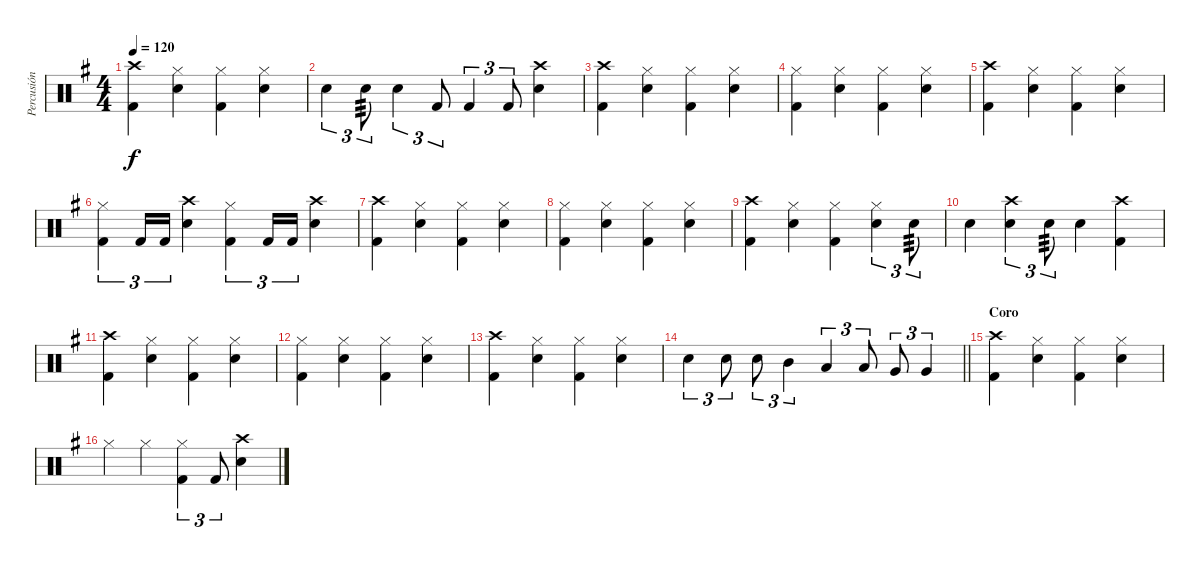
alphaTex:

\track ("Percusión" "Percusión") {instrument percussion}
\staff {score}
\articulation defaults
\ts (4 4)
\tempo 120
\clef neutral
\ks g
("Crash high (hit)" "Kick (hit) 2").4{dy f} ("Hi-Hat (closed)" "Snare (hit) 2").4 ("Hi-Hat (closed)" "Kick (hit) 2").4 ("Hi-Hat (closed)" "Snare (hit) 2").4 |
"Snare (hit) 2".4{tu (3 2)} "Snare (hit) 2".8{tu (3 2) tp 3} "Snare (hit) 2".4{tu (3 2)} "Kick (hit) 2".8{tu (3 2)} "Kick (hit) 2".4{tu (3 2)} "Kick (hit) 2".8{tu (3 2)} ("Crash high (hit)" "Snare (hit) 2").4 |
("Crash high (hit)" "Kick (hit) 2").4 ("Hi-Hat (closed)" "Snare (hit) 2").4 ("Hi-Hat (closed)" "Kick (hit) 2").4 ("Hi-Hat (closed)" "Snare (hit) 2").4 |
("Hi-Hat (closed)" "Kick (hit) 2").4 ("Hi-Hat (closed)" "Snare (hit) 2").4 ("Hi-Hat (closed)" "Kick (hit) 2").4 ("Hi-Hat (closed)" "Snare (hit) 2").4 |
("Crash high (hit)" "Kick (hit) 2").4 ("Hi-Hat (closed)" "Snare (hit) 2").4 ("Hi-Hat (closed)" "Kick (hit) 2").4 ("Hi-Hat (closed)" "Snare (hit) 2").4 |
("Hi-Hat (closed)" "Kick (hit) 2").4{tu (3 2)} "Kick (hit) 2".16{tu (3 2)} "Kick (hit) 2".16{tu (3 2)} ("Crash high (hit)" "Snare (hit) 2").4 ("Hi-Hat (closed)" "Kick (hit) 2").4{tu (3 2)} "Kick (hit) 2".16{tu (3 2)} "Kick (hit) 2".16{tu (3 2)} ("Crash high (hit)" "Snare (hit) 2").4 |
("Crash high (hit)" "Kick (hit) 2").4 ("Hi-Hat (closed)" "Snare (hit) 2").4 ("Hi-Hat (closed)" "Kick (hit) 2").4 ("Hi-Hat (closed)" "Snare (hit) 2").4 |
("Hi-Hat (closed)" "Kick (hit) 2").4 ("Hi-Hat (closed)" "Snare (hit) 2").4 ("Hi-Hat (closed)" "Kick (hit) 2").4 ("Hi-Hat (closed)" "Snare (hit) 2").4 |
("Crash high (hit)" "Kick (hit) 2").4 ("Hi-Hat (closed)" "Snare (hit) 2").4 ("Hi-Hat (closed)" "Kick (hit) 2").4 ("Hi-Hat (closed)" "Snare (hit) 2").4{tu (3 2)} "Snare (hit) 2".8{tu (3 2) tp 3} |
"Snare (hit) 2".4 ("Crash high (hit)" "Snare (hit) 2").4{tu (3 2)} "Snare (hit) 2".8{tu (3 2) tp 3} "Snare (hit) 2".4 ("Crash high (hit)" "Kick (hit) 2").4 |
("Crash high (hit)" "Kick (hit) 2").4 ("Hi-Hat (closed)" "Snare (hit) 2").4 ("Hi-Hat (closed)" "Kick (hit) 2").4 ("Hi-Hat (closed)" "Snare (hit) 2").4 |
("Hi-Hat (closed)" "Kick (hit) 2").4 ("Hi-Hat (closed)" "Snare (hit) 2").4 ("Hi-Hat (closed)" "Kick (hit) 2").4 ("Hi-Hat (closed)" "Snare (hit) 2").4 |
("Crash high (hit)" "Kick (hit) 2").4 ("Hi-Hat (closed)" "Snare (hit) 2").4 ("Hi-Hat (closed)" "Kick (hit) 2").4 ("Hi-Hat (closed)" "Snare (hit) 2").4 |
\barLineRight lightlight "Snare (hit) 2".4{tu (3 2)} "Snare (hit) 2".8{tu (3 2)} "Snare (hit) 2".8{tu (3 2)} "Mid Tom (hit)".4{tu (3 2)} "Low Tom (hit)".4{tu (3 2)} "Low Tom (hit)".8{tu (3 2)} "Very Low Tom (hit)".8{tu (3 2)} "Very Low Tom (hit)".4{tu (3 2)}
|
\section ("" "Coro")
("Crash high (hit)" "Kick (hit) 2").4 ("Hi-Hat (closed)" "Snare (hit) 2").4 ("Hi-Hat (closed)" "Kick (hit) 2").4 ("Hi-Hat (closed)" "Snare (hit) 2").4 |
"Hi-Hat (closed)".4 "Hi-Hat (closed)".4 ("Hi-Hat (closed)" "Kick (hit) 2").4{tu (3 2)} "Kick (hit) 2".8{tu (3 2)} ("Crash high (hit)" "Snare (hit) 2").4
